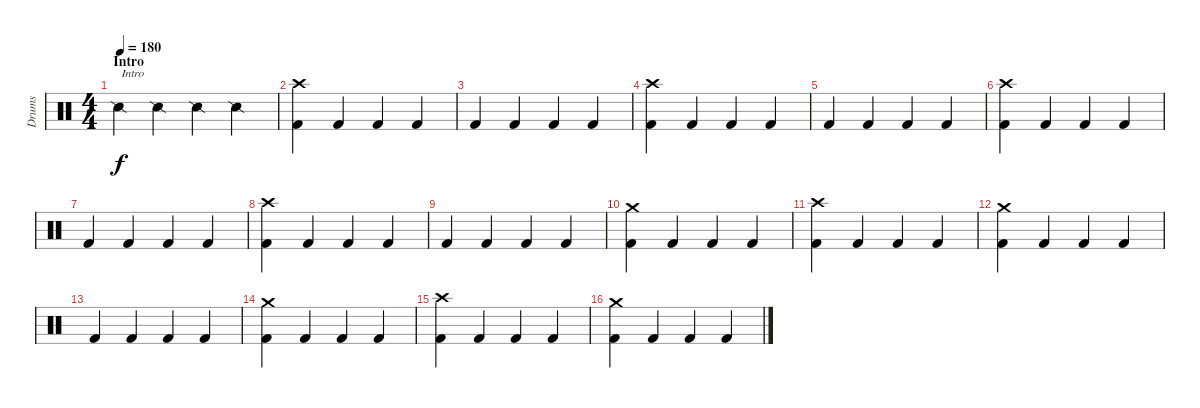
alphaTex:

\track ("Drums" "Drums") {instrument percussion}
\staff {score}
\articulation defaults
\ts (4 4)
\section ("" "Intro")
\tempo 180
\clef neutral
\ks c "Snare (side stick) 2".4{txt "Intro" dy f} "Snare (side stick) 2".4 "Snare (side stick) 2".4 "Snare (side stick) 2".4
|
("Crash high (hit)" "Kick (hit) 2").4 "Kick (hit) 2".4 "Kick (hit) 2".4 "Kick (hit) 2".4 |
"Kick (hit) 2".4 "Kick (hit) 2".4 "Kick (hit) 2".4 "Kick (hit) 2".4 |
("Crash high (hit)" "Kick (hit) 2").4 "Kick (hit) 2".4 "Kick (hit) 2".4 "Kick (hit) 2".4 |
"Kick (hit) 2".4 "Kick (hit) 2".4 "Kick (hit) 2".4 "Kick (hit) 2".4 |
("Crash high (hit)" "Kick (hit) 2").4 "Kick (hit) 2".4 "Kick (hit) 2".4 "Kick (hit) 2".4 |
"Kick (hit) 2".4 "Kick (hit) 2".4 "Kick (hit) 2".4 "Kick (hit) 2".4 |
("Crash high (hit)" "Kick (hit) 2").4 "Kick (hit) 2".4 "Kick (hit) 2".4 "Kick (hit) 2".4 |
"Kick (hit) 2".4 "Kick (hit) 2".4 "Kick (hit) 2".4 "Kick (hit) 2".4 |
("Crash medium (hit)" "Kick (hit) 2").4 "Kick (hit) 2".4 "Kick (hit) 2".4 "Kick (hit) 2".4 |
("Crash high (hit)" "Kick (hit) 2").4 "Kick (hit) 2".4 "Kick (hit) 2".4 "Kick (hit) 2".4 |
("Crash medium (hit)" "Kick (hit) 2").4 "Kick (hit) 2".4 "Kick (hit) 2".4 "Kick (hit) 2".4 |
"Kick (hit) 2".4 "Kick (hit) 2".4 "Kick (hit) 2".4 "Kick (hit) 2".4 |
("Crash medium (hit)" "Kick (hit) 2").4 "Kick (hit) 2".4 "Kick (hit) 2".4 "Kick (hit) 2".4 |
("Crash high (hit)" "Kick (hit) 2").4 "Kick (hit) 2".4 "Kick (hit) 2".4 "Kick (hit) 2".4 |
("Crash medium (hit)" "Kick (hit) 2").4 "Kick (hit) 2".4 "Kick (hit) 2".4 "Kick (hit) 2".4
